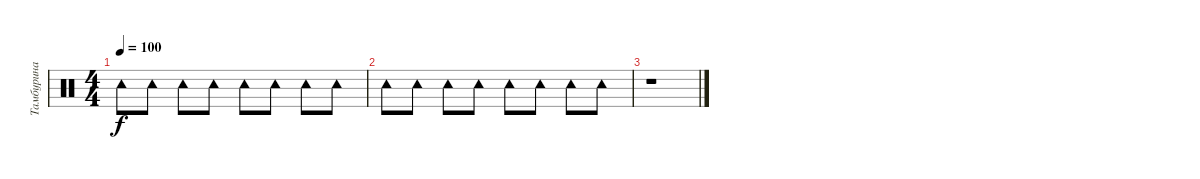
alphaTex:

\track ("Тамбурина" "Тамбурина") {instrument percussion}
\staff {score}
\articulation defaults
\ts (4 4)
\tempo 100
\clef neutral
\ks c "Tambourine (hit)".8{dy f} "Tambourine (hit)".8 "Tambourine (hit)".8 "Tambourine (hit)".8 "Tambourine (hit)".8 "Tambourine (hit)".8 "Tambourine (hit)".8 "Tambourine (hit)".8
|
"Tambourine (hit)".8 "Tambourine (hit)".8 "Tambourine (hit)".8 "Tambourine (hit)".8 "Tambourine (hit)".8 "Tambourine (hit)".8 "Tambourine (hit)".8 "Tambourine (hit)".8 |
r.1
